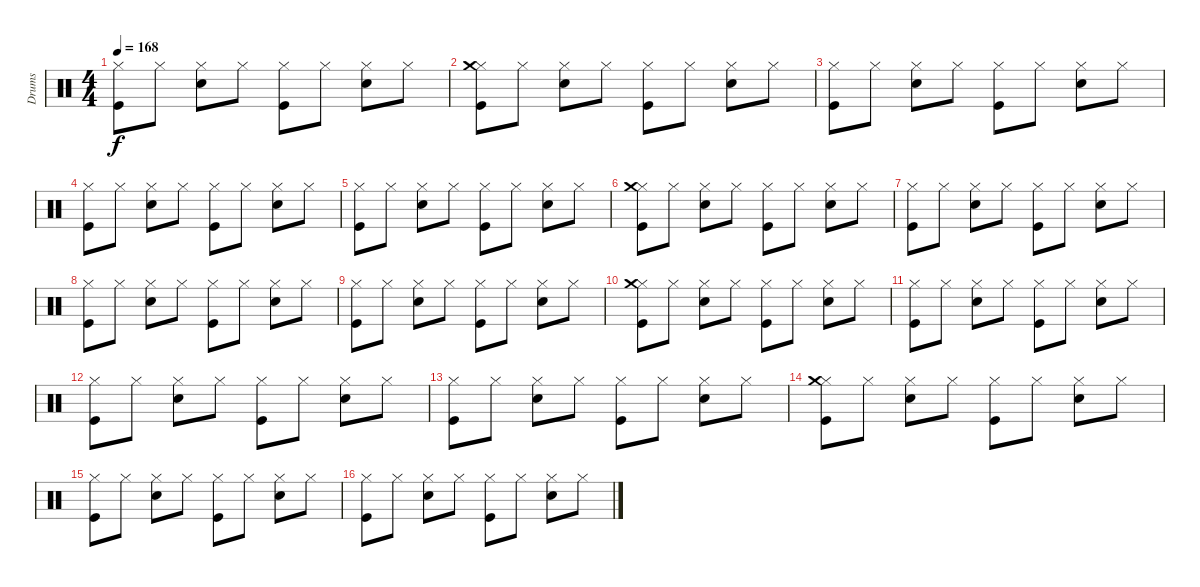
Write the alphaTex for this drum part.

\track ("Drums" "Drums") {instrument percussion}
\staff {score}
\articulation defaults
\ts (4 4)
\tempo 168
\clef neutral
\ks c
("Kick (hit)" "Hi-Hat (closed)").8{dy f} "Hi-Hat (closed)".8 ("Snare (hit) 2" "Hi-Hat (closed)").8 "Hi-Hat (closed)".8 ("Kick (hit)" "Hi-Hat (closed)").8 "Hi-Hat (closed)".8 ("Snare (hit) 2" "Hi-Hat (closed)").8 "Hi-Hat (closed)".8 |
("Kick (hit)" "Hi-Hat (closed)" "Crash medium (hit)").8 "Hi-Hat (closed)".8 ("Snare (hit) 2" "Hi-Hat (closed)").8 "Hi-Hat (closed)".8 ("Kick (hit)" "Hi-Hat (closed)").8 "Hi-Hat (closed)".8 ("Snare (hit) 2" "Hi-Hat (closed)").8 "Hi-Hat (closed)".8 |
("Kick (hit)" "Hi-Hat (closed)").8 "Hi-Hat (closed)".8 ("Snare (hit) 2" "Hi-Hat (closed)").8 "Hi-Hat (closed)".8 ("Kick (hit)" "Hi-Hat (closed)").8 "Hi-Hat (closed)".8 ("Snare (hit) 2" "Hi-Hat (closed)").8 "Hi-Hat (closed)".8 |
("Kick (hit)" "Hi-Hat (closed)").8 "Hi-Hat (closed)".8 ("Snare (hit) 2" "Hi-Hat (closed)").8 "Hi-Hat (closed)".8 ("Kick (hit)" "Hi-Hat (closed)").8 "Hi-Hat (closed)".8 ("Snare (hit) 2" "Hi-Hat (closed)").8 "Hi-Hat (closed)".8 |
("Kick (hit)" "Hi-Hat (closed)").8 "Hi-Hat (closed)".8 ("Snare (hit) 2" "Hi-Hat (closed)").8 "Hi-Hat (closed)".8 ("Kick (hit)" "Hi-Hat (closed)").8 "Hi-Hat (closed)".8 ("Snare (hit) 2" "Hi-Hat (closed)").8 "Hi-Hat (closed)".8 |
("Kick (hit)" "Hi-Hat (closed)" "Crash medium (hit)").8 "Hi-Hat (closed)".8 ("Snare (hit) 2" "Hi-Hat (closed)").8 "Hi-Hat (closed)".8 ("Kick (hit)" "Hi-Hat (closed)").8 "Hi-Hat (closed)".8 ("Snare (hit) 2" "Hi-Hat (closed)").8 "Hi-Hat (closed)".8 |
("Kick (hit)" "Hi-Hat (closed)").8 "Hi-Hat (closed)".8 ("Snare (hit) 2" "Hi-Hat (closed)").8 "Hi-Hat (closed)".8 ("Kick (hit)" "Hi-Hat (closed)").8 "Hi-Hat (closed)".8 ("Snare (hit) 2" "Hi-Hat (closed)").8 "Hi-Hat (closed)".8 |
("Kick (hit)" "Hi-Hat (closed)").8 "Hi-Hat (closed)".8 ("Snare (hit) 2" "Hi-Hat (closed)").8 "Hi-Hat (closed)".8 ("Kick (hit)" "Hi-Hat (closed)").8 "Hi-Hat (closed)".8 ("Snare (hit) 2" "Hi-Hat (closed)").8 "Hi-Hat (closed)".8 |
("Kick (hit)" "Hi-Hat (closed)").8 "Hi-Hat (closed)".8 ("Snare (hit) 2" "Hi-Hat (closed)").8 "Hi-Hat (closed)".8 ("Kick (hit)" "Hi-Hat (closed)").8 "Hi-Hat (closed)".8 ("Snare (hit) 2" "Hi-Hat (closed)").8 "Hi-Hat (closed)".8 |
("Kick (hit)" "Hi-Hat (closed)" "Crash medium (hit)").8 "Hi-Hat (closed)".8 ("Snare (hit) 2" "Hi-Hat (closed)").8 "Hi-Hat (closed)".8 ("Kick (hit)" "Hi-Hat (closed)").8 "Hi-Hat (closed)".8 ("Snare (hit) 2" "Hi-Hat (closed)").8 "Hi-Hat (closed)".8 |
("Kick (hit)" "Hi-Hat (closed)").8 "Hi-Hat (closed)".8 ("Snare (hit) 2" "Hi-Hat (closed)").8 "Hi-Hat (closed)".8 ("Kick (hit)" "Hi-Hat (closed)").8 "Hi-Hat (closed)".8 ("Snare (hit) 2" "Hi-Hat (closed)").8 "Hi-Hat (closed)".8 |
("Kick (hit)" "Hi-Hat (closed)").8 "Hi-Hat (closed)".8 ("Snare (hit) 2" "Hi-Hat (closed)").8 "Hi-Hat (closed)".8 ("Kick (hit)" "Hi-Hat (closed)").8 "Hi-Hat (closed)".8 ("Snare (hit) 2" "Hi-Hat (closed)").8 "Hi-Hat (closed)".8 |
("Kick (hit)" "Hi-Hat (closed)").8 "Hi-Hat (closed)".8 ("Snare (hit) 2" "Hi-Hat (closed)").8 "Hi-Hat (closed)".8 ("Kick (hit)" "Hi-Hat (closed)").8 "Hi-Hat (closed)".8 ("Snare (hit) 2" "Hi-Hat (closed)").8 "Hi-Hat (closed)".8 |
("Kick (hit)" "Hi-Hat (closed)" "Crash medium (hit)").8 "Hi-Hat (closed)".8 ("Snare (hit) 2" "Hi-Hat (closed)").8 "Hi-Hat (closed)".8 ("Kick (hit)" "Hi-Hat (closed)").8 "Hi-Hat (closed)".8 ("Snare (hit) 2" "Hi-Hat (closed)").8 "Hi-Hat (closed)".8 |
("Kick (hit)" "Hi-Hat (closed)").8 "Hi-Hat (closed)".8 ("Snare (hit) 2" "Hi-Hat (closed)").8 "Hi-Hat (closed)".8 ("Kick (hit)" "Hi-Hat (closed)").8 "Hi-Hat (closed)".8 ("Snare (hit) 2" "Hi-Hat (closed)").8 "Hi-Hat (closed)".8 |
("Kick (hit)" "Hi-Hat (closed)").8 "Hi-Hat (closed)".8 ("Snare (hit) 2" "Hi-Hat (closed)").8 "Hi-Hat (closed)".8 ("Kick (hit)" "Hi-Hat (closed)").8 "Hi-Hat (closed)".8 ("Snare (hit) 2" "Hi-Hat (closed)").8 "Hi-Hat (closed)".8
